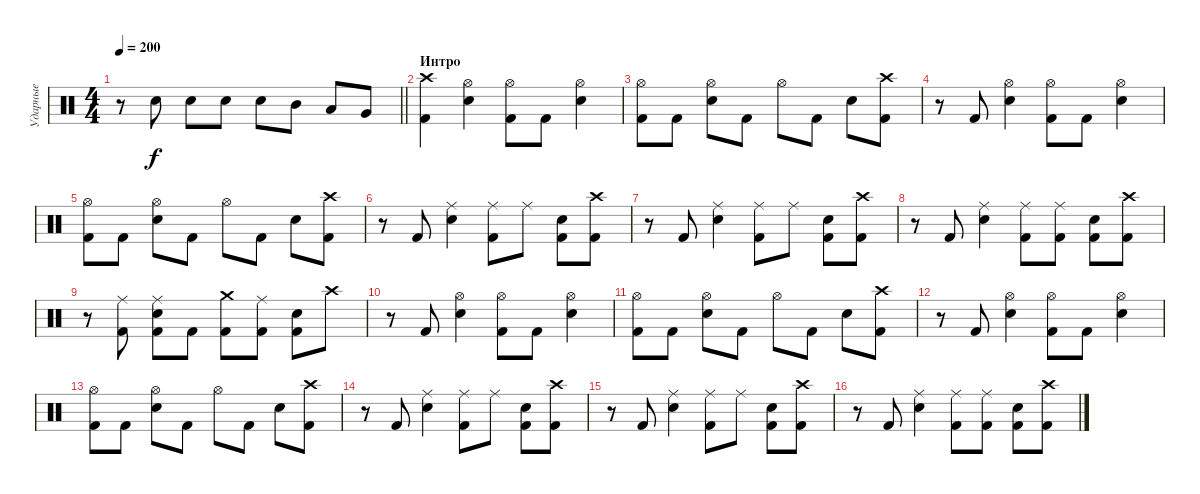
\track ("Ударные" "Ударные") {instrument percussion}
\staff {score}
\articulation defaults
\ts (4 4)
\tempo 200
\clef neutral
\barLineRight lightlight
\ks c
r.8{dy f} "Electric Snare (hit)".8 "Electric Snare (hit)".8 "Electric Snare (hit)".8 "Electric Snare (hit)".8 "Mid Tom (hit)".8 "Low Tom (hit)".8 "Very Low Tom (hit)".8 |
\section ("" "Интро")
("Crash high (hit)" "Kick (hit) 2").4 ("Hi-Hat (open)" "Electric Snare (hit)").4 ("Hi-Hat (open)" "Kick (hit) 2").8 "Kick (hit) 2".8 ("Hi-Hat (open)" "Electric Snare (hit)").4 |
("Hi-Hat (open)" "Kick (hit) 2").8 "Kick (hit) 2".8 ("Hi-Hat (open)" "Electric Snare (hit)").8 "Kick (hit) 2".8 "Hi-Hat (open)".8 "Kick (hit) 2".8 "Electric Snare (hit)".8 ("Crash high (hit)" "Kick (hit) 2").8 |
r.8 "Kick (hit) 2".8 ("Hi-Hat (open)" "Electric Snare (hit)").4 ("Hi-Hat (open)" "Kick (hit) 2").8 "Kick (hit) 2".8 ("Hi-Hat (open)" "Electric Snare (hit)").4 |
("Hi-Hat (open)" "Kick (hit) 2").8 "Kick (hit) 2".8 ("Hi-Hat (open)" "Electric Snare (hit)").8 "Kick (hit) 2".8 "Hi-Hat (open)".8 "Kick (hit) 2".8 "Electric Snare (hit)".8 ("Crash high (hit)" "Kick (hit) 2").8 |
r.8 "Kick (hit) 2".8 ("Ride (middle)" "Electric Snare (hit)").4 ("Ride (middle)" "Kick (hit) 2").8 "Ride (middle)".8 ("Electric Snare (hit)" "Kick (hit) 2").8 ("Crash high (hit)" "Kick (hit) 2").8 |
r.8 "Kick (hit) 2".8 ("Ride (middle)" "Electric Snare (hit)").4 ("Ride (middle)" "Kick (hit) 2").8 "Ride (middle)".8 ("Electric Snare (hit)" "Kick (hit) 2").8 ("Crash high (hit)" "Kick (hit) 2").8 |
r.8 "Kick (hit) 2".8 ("Ride (middle)" "Electric Snare (hit)").4 ("Ride (middle)" "Kick (hit) 2").8 ("Ride (middle)" "Kick (hit) 2").8 ("Electric Snare (hit)" "Kick (hit) 2").8 ("Crash high (hit)" "Kick (hit) 2").8 |
r.8 ("Ride (middle)" "Kick (hit) 2").8 ("Ride (middle)" "Electric Snare (hit)" "Kick (hit) 2").8 "Kick (hit) 2".8 ("Crash medium (hit)" "Kick (hit) 2").8 ("Ride (middle)" "Kick (hit) 2").8 ("Electric Snare (hit)" "Kick (hit) 2").8 "Crash high (hit)".8 |
r.8 "Kick (hit) 2".8 ("Hi-Hat (open)" "Electric Snare (hit)").4 ("Hi-Hat (open)" "Kick (hit) 2").8 "Kick (hit) 2".8 ("Hi-Hat (open)" "Electric Snare (hit)").4 |
("Hi-Hat (open)" "Kick (hit) 2").8 "Kick (hit) 2".8 ("Hi-Hat (open)" "Electric Snare (hit)").8 "Kick (hit) 2".8 "Hi-Hat (open)".8 "Kick (hit) 2".8 "Electric Snare (hit)".8 ("Crash high (hit)" "Kick (hit) 2").8 |
r.8 "Kick (hit) 2".8 ("Hi-Hat (open)" "Electric Snare (hit)").4 ("Hi-Hat (open)" "Kick (hit) 2").8 "Kick (hit) 2".8 ("Hi-Hat (open)" "Electric Snare (hit)").4 |
("Hi-Hat (open)" "Kick (hit) 2").8 "Kick (hit) 2".8 ("Hi-Hat (open)" "Electric Snare (hit)").8 "Kick (hit) 2".8 "Hi-Hat (open)".8 "Kick (hit) 2".8 "Electric Snare (hit)".8 ("Crash high (hit)" "Kick (hit) 2").8 |
r.8 "Kick (hit) 2".8 ("Ride (middle)" "Electric Snare (hit)").4 ("Ride (middle)" "Kick (hit) 2").8 "Ride (middle)".8 ("Electric Snare (hit)" "Kick (hit) 2").8 ("Crash high (hit)" "Kick (hit) 2").8 |
r.8 "Kick (hit) 2".8 ("Ride (middle)" "Electric Snare (hit)").4 ("Ride (middle)" "Kick (hit) 2").8 "Ride (middle)".8 ("Electric Snare (hit)" "Kick (hit) 2").8 ("Crash high (hit)" "Kick (hit) 2").8 |
r.8 "Kick (hit) 2".8 ("Ride (middle)" "Electric Snare (hit)").4 ("Ride (middle)" "Kick (hit) 2").8 ("Ride (middle)" "Kick (hit) 2").8 ("Electric Snare (hit)" "Kick (hit) 2").8 ("Crash high (hit)" "Kick (hit) 2").8
